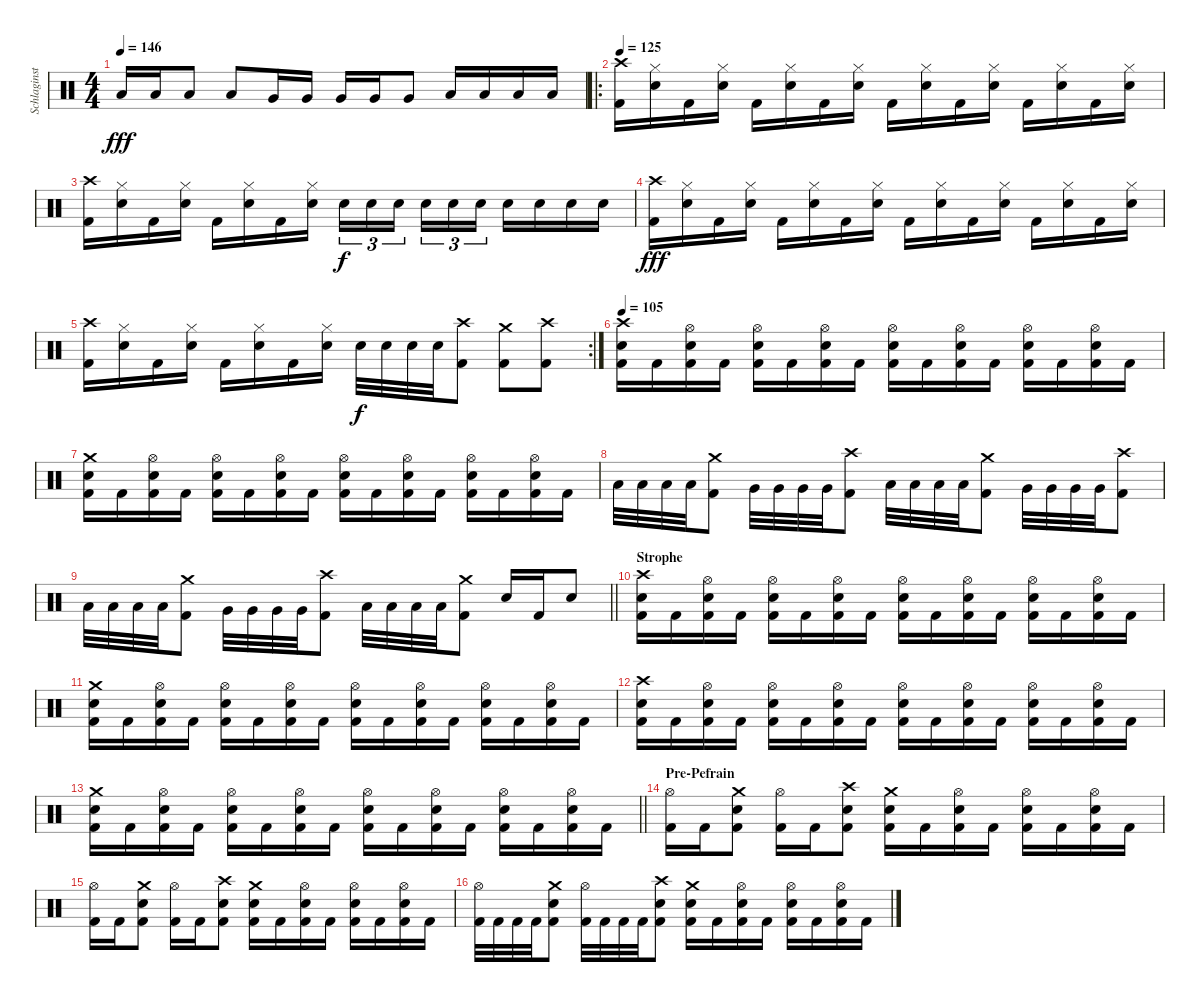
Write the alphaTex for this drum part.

\track ("Schlaginstrumente - Auswahl" "Schlaginst") {instrument percussion}
\staff {score}
\articulation defaults
\ts (4 4)
\tempo 146
\clef neutral
\ks c "Low Tom (hit)".16{dy fff} "Low Tom (hit)".16 "Low Tom (hit)".8 "Low Tom (hit)".8 "Very Low Tom (hit)".16 "Very Low Tom (hit)".16 "Very Low Tom (hit)".16 "Very Low Tom (hit)".16 "Very Low Tom (hit)".8 "Low Floor Tom (hit)".16 "Low Floor Tom (hit)".16 "Low Floor Tom (hit)".16 "Low Floor Tom (hit)".16
|
\ro
\tempo 125
("Crash high (hit)" "Kick (hit) 2").16 ("Hi-Hat (closed)" "Electric Snare (hit)").16 "Kick (hit) 2".16 ("Hi-Hat (closed)" "Electric Snare (hit)").16 "Kick (hit) 2".16 ("Hi-Hat (closed)" "Electric Snare (hit)").16 "Kick (hit) 2".16 ("Hi-Hat (closed)" "Electric Snare (hit)").16 "Kick (hit) 2".16 ("Hi-Hat (closed)" "Electric Snare (hit)").16 "Kick (hit) 2".16 ("Hi-Hat (closed)" "Electric Snare (hit)").16 "Kick (hit) 2".16 ("Hi-Hat (closed)" "Electric Snare (hit)").16 "Kick (hit) 2".16 ("Hi-Hat (closed)" "Electric Snare (hit)").16 |
("Crash high (hit)" "Kick (hit) 2").16 ("Hi-Hat (closed)" "Electric Snare (hit)").16 "Kick (hit) 2".16 ("Hi-Hat (closed)" "Electric Snare (hit)").16 "Kick (hit) 2".16 ("Hi-Hat (closed)" "Electric Snare (hit)").16 "Kick (hit) 2".16 ("Hi-Hat (closed)" "Electric Snare (hit)").16 "Electric Snare (hit)".16{tu (3 2) dy f} "Electric Snare (hit)".16{tu (3 2)} "Electric Snare (hit)".16{tu (3 2) beam splitsecondary} "Electric Snare (hit)".16{tu (3 2)} "Electric Snare (hit)".16{tu (3 2)} "Electric Snare (hit)".16{tu (3 2)} "Electric Snare (hit)".16 "Electric Snare (hit)".16 "Electric Snare (hit)".16 "Electric Snare (hit)".16 |
("Crash high (hit)" "Kick (hit) 2").16{dy fff} ("Hi-Hat (closed)" "Electric Snare (hit)").16 "Kick (hit) 2".16 ("Hi-Hat (closed)" "Electric Snare (hit)").16 "Kick (hit) 2".16 ("Hi-Hat (closed)" "Electric Snare (hit)").16 "Kick (hit) 2".16 ("Hi-Hat (closed)" "Electric Snare (hit)").16 "Kick (hit) 2".16 ("Hi-Hat (closed)" "Electric Snare (hit)").16 "Kick (hit) 2".16 ("Hi-Hat (closed)" "Electric Snare (hit)").16 "Kick (hit) 2".16 ("Hi-Hat (closed)" "Electric Snare (hit)").16 "Kick (hit) 2".16 ("Hi-Hat (closed)" "Electric Snare (hit)").16 |
\rc 2
("Crash high (hit)" "Kick (hit) 2").16 ("Hi-Hat (closed)" "Electric Snare (hit)").16 "Kick (hit) 2".16 ("Hi-Hat (closed)" "Electric Snare (hit)").16 "Kick (hit) 2".16 ("Hi-Hat (closed)" "Electric Snare (hit)").16 "Kick (hit) 2".16 ("Hi-Hat (closed)" "Electric Snare (hit)").16 "Electric Snare (hit)".32{dy f} "Electric Snare (hit)".32 "Electric Snare (hit)".32 "Electric Snare (hit)".32 ("Crash high (hit)" "Kick (hit) 2").8 ("Crash medium (hit)" "Kick (hit) 2").8 ("Crash high (hit)" "Kick (hit) 2").8 |
\tempo 105
("Crash high (hit)" "Electric Snare (hit)" "Kick (hit) 2").16 "Kick (hit) 2".16 ("Hi-Hat (open)" "Electric Snare (hit)" "Kick (hit) 2").16 "Kick (hit) 2".16 ("Hi-Hat (open)" "Electric Snare (hit)" "Kick (hit) 2").16 "Kick (hit) 2".16 ("Hi-Hat (open)" "Electric Snare (hit)" "Kick (hit) 2").16 "Kick (hit) 2".16 ("Hi-Hat (open)" "Electric Snare (hit)" "Kick (hit) 2").16 "Kick (hit) 2".16 ("Hi-Hat (open)" "Electric Snare (hit)" "Kick (hit) 2").16 "Kick (hit) 2".16 ("Hi-Hat (open)" "Electric Snare (hit)" "Kick (hit) 2").16 "Kick (hit) 2".16 ("Hi-Hat (open)" "Electric Snare (hit)" "Kick (hit) 2").16 "Kick (hit) 2".16 |
("Crash medium (hit)" "Electric Snare (hit)" "Kick (hit) 2").16 "Kick (hit) 2".16 ("Hi-Hat (open)" "Electric Snare (hit)" "Kick (hit) 2").16 "Kick (hit) 2".16 ("Hi-Hat (open)" "Electric Snare (hit)" "Kick (hit) 2").16 "Kick (hit) 2".16 ("Hi-Hat (open)" "Electric Snare (hit)" "Kick (hit) 2").16 "Kick (hit) 2".16 ("Hi-Hat (open)" "Electric Snare (hit)" "Kick (hit) 2").16 "Kick (hit) 2".16 ("Hi-Hat (open)" "Electric Snare (hit)" "Kick (hit) 2").16 "Kick (hit) 2".16 ("Hi-Hat (open)" "Electric Snare (hit)" "Kick (hit) 2").16 "Kick (hit) 2".16 ("Hi-Hat (open)" "Electric Snare (hit)" "Kick (hit) 2").16 "Kick (hit) 2".16 |
"Low Tom (hit)".32 "Low Tom (hit)".32 "Low Tom (hit)".32 "Low Tom (hit)".32 ("Crash medium (hit)" "Kick (hit) 2").8 "Very Low Tom (hit)".32 "Very Low Tom (hit)".32 "Very Low Tom (hit)".32 "Very Low Tom (hit)".32 ("Crash high (hit)" "Kick (hit) 2").8 "Low Tom (hit)".32 "Low Tom (hit)".32 "Low Tom (hit)".32 "Low Tom (hit)".32 ("Crash medium (hit)" "Kick (hit) 2").8 "Very Low Tom (hit)".32 "Very Low Tom (hit)".32 "Very Low Tom (hit)".32 "Very Low Tom (hit)".32 ("Crash high (hit)" "Kick (hit) 2").8 |
\barLineRight lightlight "Low Tom (hit)".32 "Low Tom (hit)".32 "Low Tom (hit)".32 "Low Tom (hit)".32
("Crash medium (hit)" "Kick (hit) 2").8 "Very Low Tom (hit)".32 "Very Low Tom (hit)".32 "Very Low Tom (hit)".32 "Very Low Tom (hit)".32 ("Crash high (hit)" "Kick (hit) 2").8 "Low Tom (hit)".32 "Low Tom (hit)".32 "Low Tom (hit)".32 "Low Tom (hit)".32 ("Crash medium (hit)" "Kick (hit) 2").8 "Electric Snare (hit)".16 "Kick (hit) 2".16 "Electric Snare (hit)".8 |
\section ("" "Strophe")
("Crash high (hit)" "Electric Snare (hit)" "Kick (hit) 2").16 "Kick (hit) 2".16 ("Hi-Hat (open)" "Electric Snare (hit)" "Kick (hit) 2").16 "Kick (hit) 2".16 ("Hi-Hat (open)" "Electric Snare (hit)" "Kick (hit) 2").16 "Kick (hit) 2".16 ("Hi-Hat (open)" "Electric Snare (hit)" "Kick (hit) 2").16 "Kick (hit) 2".16 ("Hi-Hat (open)" "Electric Snare (hit)" "Kick (hit) 2").16 "Kick (hit) 2".16 ("Hi-Hat (open)" "Electric Snare (hit)" "Kick (hit) 2").16 "Kick (hit) 2".16 ("Hi-Hat (open)" "Electric Snare (hit)" "Kick (hit) 2").16 "Kick (hit) 2".16 ("Hi-Hat (open)" "Electric Snare (hit)" "Kick (hit) 2").16 "Kick (hit) 2".16 |
("Crash medium (hit)" "Electric Snare (hit)" "Kick (hit) 2").16 "Kick (hit) 2".16 ("Hi-Hat (open)" "Electric Snare (hit)" "Kick (hit) 2").16 "Kick (hit) 2".16 ("Hi-Hat (open)" "Electric Snare (hit)" "Kick (hit) 2").16 "Kick (hit) 2".16 ("Hi-Hat (open)" "Electric Snare (hit)" "Kick (hit) 2").16 "Kick (hit) 2".16 ("Hi-Hat (open)" "Electric Snare (hit)" "Kick (hit) 2").16 "Kick (hit) 2".16 ("Hi-Hat (open)" "Electric Snare (hit)" "Kick (hit) 2").16 "Kick (hit) 2".16 ("Hi-Hat (open)" "Electric Snare (hit)" "Kick (hit) 2").16 "Kick (hit) 2".16 ("Hi-Hat (open)" "Electric Snare (hit)" "Kick (hit) 2").16 "Kick (hit) 2".16 |
("Crash high (hit)" "Electric Snare (hit)" "Kick (hit) 2").16 "Kick (hit) 2".16 ("Hi-Hat (open)" "Electric Snare (hit)" "Kick (hit) 2").16 "Kick (hit) 2".16 ("Hi-Hat (open)" "Electric Snare (hit)" "Kick (hit) 2").16 "Kick (hit) 2".16 ("Hi-Hat (open)" "Electric Snare (hit)" "Kick (hit) 2").16 "Kick (hit) 2".16 ("Hi-Hat (open)" "Electric Snare (hit)" "Kick (hit) 2").16 "Kick (hit) 2".16 ("Hi-Hat (open)" "Electric Snare (hit)" "Kick (hit) 2").16 "Kick (hit) 2".16 ("Hi-Hat (open)" "Electric Snare (hit)" "Kick (hit) 2").16 "Kick (hit) 2".16 ("Hi-Hat (open)" "Electric Snare (hit)" "Kick (hit) 2").16 "Kick (hit) 2".16 |
\barLineRight lightlight
("Crash medium (hit)" "Electric Snare (hit)" "Kick (hit) 2").16 "Kick (hit) 2".16 ("Hi-Hat (open)" "Electric Snare (hit)" "Kick (hit) 2").16 "Kick (hit) 2".16 ("Hi-Hat (open)" "Electric Snare (hit)" "Kick (hit) 2").16 "Kick (hit) 2".16 ("Hi-Hat (open)" "Electric Snare (hit)" "Kick (hit) 2").16 "Kick (hit) 2".16 ("Hi-Hat (open)" "Electric Snare (hit)" "Kick (hit) 2").16 "Kick (hit) 2".16 ("Hi-Hat (open)" "Electric Snare (hit)" "Kick (hit) 2").16 "Kick (hit) 2".16 ("Hi-Hat (open)" "Electric Snare (hit)" "Kick (hit) 2").16 "Kick (hit) 2".16 ("Hi-Hat (open)" "Electric Snare (hit)" "Kick (hit) 2").16 "Kick (hit) 2".16 |
\section ("" "Pre-Pefrain")
("Hi-Hat (open)" "Kick (hit) 2").16 "Kick (hit) 2".16 ("Crash medium (hit)" "Electric Snare (hit)" "Kick (hit) 2").8 ("Hi-Hat (open)" "Kick (hit) 2").16 "Kick (hit) 2".16 ("Crash high (hit)" "Electric Snare (hit)" "Kick (hit) 2").8 ("Crash medium (hit)" "Electric Snare (hit)" "Kick (hit) 2").16 "Kick (hit) 2".16 ("Hi-Hat (open)" "Electric Snare (hit)" "Kick (hit) 2").16 "Kick (hit) 2".16 ("Hi-Hat (open)" "Electric Snare (hit)" "Kick (hit) 2").16 "Kick (hit) 2".16 ("Hi-Hat (open)" "Electric Snare (hit)" "Kick (hit) 2").16 "Kick (hit) 2".16 |
("Hi-Hat (open)" "Kick (hit) 2").16 "Kick (hit) 2".16 ("Crash medium (hit)" "Electric Snare (hit)" "Kick (hit) 2").8 ("Hi-Hat (open)" "Kick (hit) 2").16 "Kick (hit) 2".16 ("Crash high (hit)" "Electric Snare (hit)" "Kick (hit) 2").8 ("Crash medium (hit)" "Electric Snare (hit)" "Kick (hit) 2").16 "Kick (hit) 2".16 ("Hi-Hat (open)" "Electric Snare (hit)" "Kick (hit) 2").16 "Kick (hit) 2".16 ("Hi-Hat (open)" "Electric Snare (hit)" "Kick (hit) 2").16 "Kick (hit) 2".16 ("Hi-Hat (open)" "Electric Snare (hit)" "Kick (hit) 2").16 "Kick (hit) 2".16 |
("Hi-Hat (open)" "Kick (hit) 2").32 "Kick (hit) 2".32 "Kick (hit) 2".32 "Kick (hit) 2".32 ("Crash medium (hit)" "Electric Snare (hit)" "Kick (hit) 2").8 ("Hi-Hat (open)" "Kick (hit) 2").32 "Kick (hit) 2".32 "Kick (hit) 2".32 "Kick (hit) 2".32 ("Crash high (hit)" "Electric Snare (hit)" "Kick (hit) 2").8 ("Crash medium (hit)" "Electric Snare (hit)" "Kick (hit) 2").16 "Kick (hit) 2".16 ("Hi-Hat (open)" "Electric Snare (hit)" "Kick (hit) 2").16 "Kick (hit) 2".16 ("Hi-Hat (open)" "Electric Snare (hit)" "Kick (hit) 2").16 "Kick (hit) 2".16 ("Hi-Hat (open)" "Electric Snare (hit)" "Kick (hit) 2").16 "Kick (hit) 2".16
